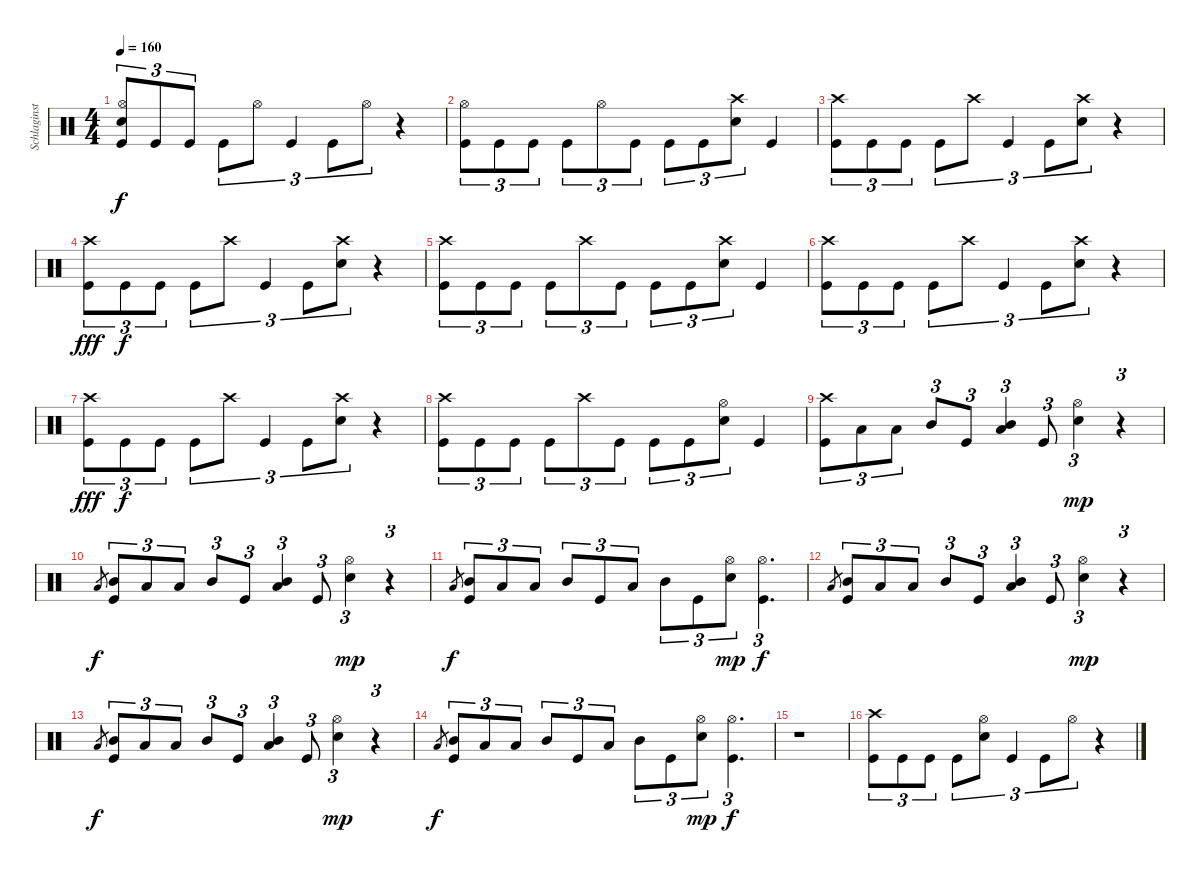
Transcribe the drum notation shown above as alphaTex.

\track ("Schlaginstrumente - Auswahl" "Schlaginst") {instrument percussion}
\staff {score}
\articulation defaults
\ts (4 4)
\tempo 160
\clef neutral
\ks c
("Electric Snare (hit)" "Hi-Hat (open)" "Kick (hit)").8{tu (3 2) dy f} "Kick (hit)".8{tu (3 2)} "Kick (hit)".8{tu (3 2)} "Kick (hit)".8{tu (3 2)} "Hi-Hat (open)".8{tu (3 2)} "Kick (hit)".4{tu (3 2)} "Kick (hit)".8{tu (3 2)} "Hi-Hat (open)".8{tu (3 2)} r.4 |
("Hi-Hat (open)" "Kick (hit)").8{tu (3 2)} "Kick (hit)".8{tu (3 2)} "Kick (hit)".8{tu (3 2)} "Kick (hit)".8{tu (3 2)} "Hi-Hat (open)".8{tu (3 2)} "Kick (hit)".8{tu (3 2)} "Kick (hit)".8{tu (3 2)} "Kick (hit)".8{tu (3 2)} ("Electric Snare (hit)" "Crash high (hit)").8{tu (3 2)} "Kick (hit)".4 |
("Crash high (hit)" "Kick (hit)").8{tu (3 2)} "Kick (hit)".8{tu (3 2)} "Kick (hit)".8{tu (3 2)} "Kick (hit)".8{tu (3 2)} "Crash high (hit)".8{tu (3 2)} "Kick (hit)".4{tu (3 2)} "Kick (hit)".8{tu (3 2)} ("Electric Snare (hit)" "Crash high (hit)").8{tu (3 2)} r.4 |
("Crash high (hit)" "Kick (hit)").8{tu (3 2) dy fff} "Kick (hit)".8{tu (3 2) dy f} "Kick (hit)".8{tu (3 2)} "Kick (hit)".8{tu (3 2)} "Crash high (hit)".8{tu (3 2)} "Kick (hit)".4{tu (3 2)} "Kick (hit)".8{tu (3 2)} ("Electric Snare (hit)" "Crash high (hit)").8{tu (3 2)} r.4 |
("Crash high (hit)" "Kick (hit)").8{tu (3 2)} "Kick (hit)".8{tu (3 2)} "Kick (hit)".8{tu (3 2)} "Kick (hit)".8{tu (3 2)} "Crash high (hit)".8{tu (3 2)} "Kick (hit)".8{tu (3 2)} "Kick (hit)".8{tu (3 2)} "Kick (hit)".8{tu (3 2)} ("Electric Snare (hit)" "Crash high (hit)").8{tu (3 2)} "Kick (hit)".4 |
("Crash high (hit)" "Kick (hit)").8{tu (3 2)} "Kick (hit)".8{tu (3 2)} "Kick (hit)".8{tu (3 2)} "Kick (hit)".8{tu (3 2)} "Crash high (hit)".8{tu (3 2)} "Kick (hit)".4{tu (3 2)} "Kick (hit)".8{tu (3 2)} ("Electric Snare (hit)" "Crash high (hit)").8{tu (3 2)} r.4 |
("Crash high (hit)" "Kick (hit)").8{tu (3 2) dy fff} "Kick (hit)".8{tu (3 2) dy f} "Kick (hit)".8{tu (3 2)} "Kick (hit)".8{tu (3 2)} "Crash high (hit)".8{tu (3 2)} "Kick (hit)".4{tu (3 2)} "Kick (hit)".8{tu (3 2)} ("Electric Snare (hit)" "Crash high (hit)").8{tu (3 2)} r.4 |
("Crash high (hit)" "Kick (hit)").8{tu (3 2)} "Kick (hit)".8{tu (3 2)} "Kick (hit)".8{tu (3 2)} "Kick (hit)".8{tu (3 2)} "Crash high (hit)".8{tu (3 2)} "Kick (hit)".8{tu (3 2)} "Kick (hit)".8{tu (3 2)} "Kick (hit)".8{tu (3 2)} ("Electric Snare (hit)" "Hi-Hat (open)").8{tu (3 2)} "Kick (hit)".4 |
("Crash high (hit)" "Kick (hit)").8{tu (3 2)} "Low Tom (hit)".8{tu (3 2)} "Low Floor Tom (hit)".8{tu (3 2)} "Mid Tom (hit)".8{tu (3 2)} "Kick (hit)".8{tu (3 2)} ("Mid Tom (hit)" "Low Floor Tom (hit)").4{tu (3 2)} "Kick (hit)".8{tu (3 2)} ("Hi-Hat (open)" "Electric Snare (hit)").4{tu (3 2) dy mp} r.4{tu (3 2)} |
"Low Tom (hit)".8{gr dy f} ("Kick (hit)" "Mid Tom (hit)").8{tu (3 2)} "Low Tom (hit)".8{tu (3 2)} "Low Floor Tom (hit)".8{tu (3 2)} "Mid Tom (hit)".8{tu (3 2)} "Kick (hit)".8{tu (3 2)} ("Mid Tom (hit)" "Low Floor Tom (hit)").4{tu (3 2)} "Kick (hit)".8{tu (3 2)} ("Hi-Hat (open)" "Electric Snare (hit)").4{tu (3 2) dy mp} r.4{tu (3 2)} |
"Low Tom (hit)".8{gr dy f} ("Mid Tom (hit)" "Kick (hit)").8{tu (3 2)} "Low Tom (hit)".8{tu (3 2)} "Low Floor Tom (hit)".8{tu (3 2)} "Mid Tom (hit)".8{tu (3 2)} "Kick (hit)".8{tu (3 2)} "Low Tom (hit)".8{tu (3 2)} "Mid Tom (hit)".8{tu (3 2)} "Kick (hit)".8{tu (3 2)} ("Hi-Hat (open)" "Electric Snare (hit)").8{tu (3 2) dy mp} ("Hi-Hat (open)" "Kick (hit)").4{d tu (3 2) dy f} |
"Low Tom (hit)".8{gr} ("Kick (hit)" "Mid Tom (hit)").8{tu (3 2)} "Low Tom (hit)".8{tu (3 2)} "Low Floor Tom (hit)".8{tu (3 2)} "Mid Tom (hit)".8{tu (3 2)} "Kick (hit)".8{tu (3 2)} ("Mid Tom (hit)" "Low Floor Tom (hit)").4{tu (3 2)} "Kick (hit)".8{tu (3 2)} ("Hi-Hat (open)" "Electric Snare (hit)").4{tu (3 2) dy mp} r.4{tu (3 2)} |
"Low Tom (hit)".8{gr dy f} ("Kick (hit)" "Mid Tom (hit)").8{tu (3 2)} "Low Tom (hit)".8{tu (3 2)} "Low Floor Tom (hit)".8{tu (3 2)} "Mid Tom (hit)".8{tu (3 2)} "Kick (hit)".8{tu (3 2)} ("Mid Tom (hit)" "Low Floor Tom (hit)").4{tu (3 2)} "Kick (hit)".8{tu (3 2)} ("Hi-Hat (open)" "Electric Snare (hit)").4{tu (3 2) dy mp} r.4{tu (3 2)} |
"Low Tom (hit)".8{gr dy f} ("Mid Tom (hit)" "Kick (hit)").8{tu (3 2)} "Low Tom (hit)".8{tu (3 2)} "Low Floor Tom (hit)".8{tu (3 2)} "Mid Tom (hit)".8{tu (3 2)} "Kick (hit)".8{tu (3 2)} "Low Tom (hit)".8{tu (3 2)} "Mid Tom (hit)".8{tu (3 2)} "Kick (hit)".8{tu (3 2)} ("Hi-Hat (open)" "Electric Snare (hit)").8{tu (3 2) dy mp} ("Hi-Hat (open)" "Kick (hit)").4{d tu (3 2) dy f} |
r.1 |
("Crash high (hit)" "Kick (hit)").8{tu (3 2)} "Kick (hit)".8{tu (3 2)} "Kick (hit)".8{tu (3 2)} "Kick (hit)".8{tu (3 2)} ("Electric Snare (hit)" "Hi-Hat (open)").8{tu (3 2)} "Kick (hit)".4{tu (3 2)} "Kick (hit)".8{tu (3 2)} "Hi-Hat (open)".8{tu (3 2)} r.4
